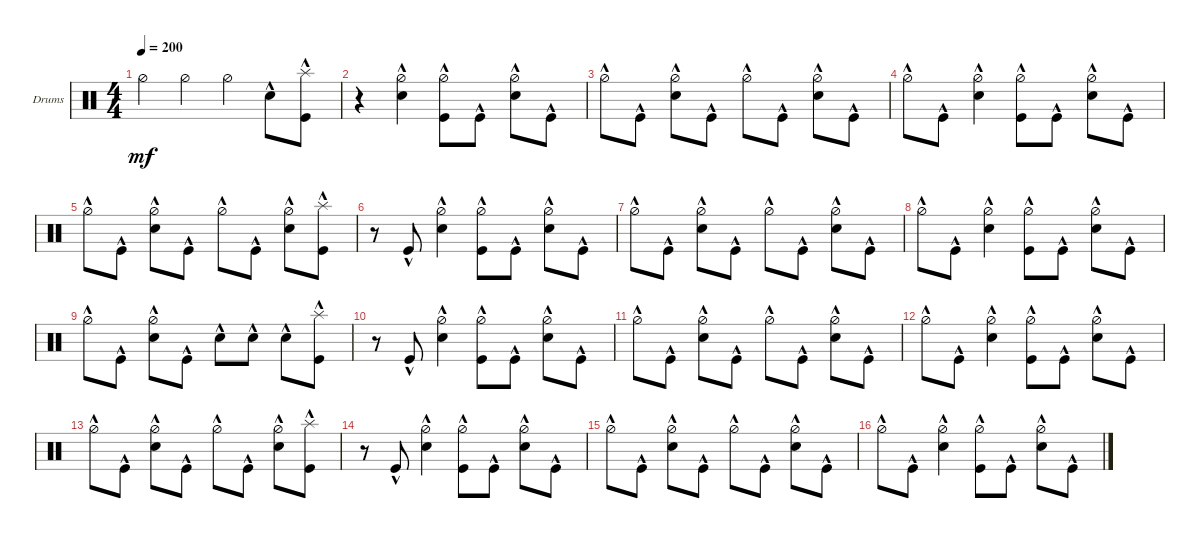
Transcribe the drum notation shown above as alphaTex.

\defaultSystemsLayout 4
\bracketExtendMode groupsimilarinstruments
\firstSystemTrackNameOrientation horizontal
\otherSystemsTrackNameOrientation horizontal
\track ("Drumkit" "Drums") {instrument percussion}
\staff {score}
\articulation defaults
\ts (4 4)
\tempo 200
\clef neutral
\scale
0.472222
\ks c "Hi-Hat (half)".4{dy mf} "Hi-Hat (half)".4 "Hi-Hat (half)".4 "Snare (hit) 2"{hac}.8
("Kick (hit)"{hac} "Splash (hit)"{hac}).8 |
\scale
0.263889 r.4 ("Snare (hit) 2"{hac} "Hi-Hat (half)"{hac}).4 ("Kick (hit)"{hac} "Hi-Hat (half)"{hac}).8 "Kick (hit)"{hac}.8 ("Snare (hit) 2"{hac} "Hi-Hat (half)"{hac}).8 "Kick (hit)"{hac}.8 |
\scale
0.263889 "Hi-Hat (half)"{hac}.8 "Kick (hit)"{hac}.8 ("Snare (hit) 2"{hac} "Hi-Hat (half)"{hac}).8 "Kick (hit)"{hac}.8 "Hi-Hat (half)"{hac}.8 "Kick (hit)"{hac}.8 ("Snare (hit) 2"{hac} "Hi-Hat (half)"{hac}).8 "Kick (hit)"{hac}.8 |
\scale
0.333333 "Hi-Hat (half)"{hac}.8 "Kick (hit)"{hac}.8 ("Snare (hit) 2"{hac} "Hi-Hat (half)"{hac}).4 ("Kick (hit)"{hac} "Hi-Hat (half)"{hac}).8 "Kick (hit)"{hac}.8 ("Snare (hit) 2"{hac} "Hi-Hat (half)"{hac}).8 "Kick (hit)"{hac}.8 |
\scale
0.333333 "Hi-Hat (half)"{hac}.8 "Kick (hit)"{hac}.8 ("Snare (hit) 2"{hac} "Hi-Hat (half)"{hac}).8 "Kick (hit)"{hac}.8 "Hi-Hat (half)"{hac}.8 "Kick (hit)"{hac}.8 ("Snare (hit) 2"{hac} "Hi-Hat (half)"{hac}).8 ("Kick (hit)"{hac} "Splash (hit)"{hac}).8 |
\scale
0.333333 r.8 "Kick (hit)"{hac}.8 ("Snare (hit) 2"{hac} "Hi-Hat (half)"{hac}).4 ("Kick (hit)"{hac} "Hi-Hat (half)"{hac}).8 "Kick (hit)"{hac}.8 ("Snare (hit) 2"{hac} "Hi-Hat (half)"{hac}).8 "Kick (hit)"{hac}.8 |
\scale
0.333333 "Hi-Hat (half)"{hac}.8 "Kick (hit)"{hac}.8 ("Snare (hit) 2"{hac} "Hi-Hat (half)"{hac}).8 "Kick (hit)"{hac}.8 "Hi-Hat (half)"{hac}.8 "Kick (hit)"{hac}.8 ("Snare (hit) 2"{hac} "Hi-Hat (half)"{hac}).8 "Kick (hit)"{hac}.8 |
\scale
0.333333 "Hi-Hat (half)"{hac}.8 "Kick (hit)"{hac}.8 ("Snare (hit) 2"{hac} "Hi-Hat (half)"{hac}).4 ("Kick (hit)"{hac} "Hi-Hat (half)"{hac}).8 "Kick (hit)"{hac}.8 ("Snare (hit) 2"{hac} "Hi-Hat (half)"{hac}).8 "Kick (hit)"{hac}.8 |
\scale
0.333333 "Hi-Hat (half)"{hac}.8 "Kick (hit)"{hac}.8 ("Snare (hit) 2"{hac} "Hi-Hat (half)"{hac}).8 "Kick (hit)"{hac}.8 "Snare (hit) 2"{hac}.8 "Snare (hit) 2"{hac}.8 "Snare (hit) 2"{hac}.8 ("Kick (hit)"{hac} "Splash (hit)"{hac}).8 |
\scale
0.333333 r.8 "Kick (hit)"{hac}.8 ("Snare (hit) 2"{hac} "Hi-Hat (half)"{hac}).4 ("Kick (hit)"{hac} "Hi-Hat (half)"{hac}).8 "Kick (hit)"{hac}.8 ("Snare (hit) 2"{hac} "Hi-Hat (half)"{hac}).8 "Kick (hit)"{hac}.8 |
\scale
0.333333 "Hi-Hat (half)"{hac}.8 "Kick (hit)"{hac}.8 ("Snare (hit) 2"{hac} "Hi-Hat (half)"{hac}).8 "Kick (hit)"{hac}.8 "Hi-Hat (half)"{hac}.8 "Kick (hit)"{hac}.8 ("Snare (hit) 2"{hac} "Hi-Hat (half)"{hac}).8 "Kick (hit)"{hac}.8 |
\scale
0.333333 "Hi-Hat (half)"{hac}.8 "Kick (hit)"{hac}.8 ("Snare (hit) 2"{hac} "Hi-Hat (half)"{hac}).4 ("Kick (hit)"{hac} "Hi-Hat (half)"{hac}).8 "Kick (hit)"{hac}.8 ("Snare (hit) 2"{hac} "Hi-Hat (half)"{hac}).8 "Kick (hit)"{hac}.8 |
\scale
0.333333 "Hi-Hat (half)"{hac}.8 "Kick (hit)"{hac}.8 ("Snare (hit) 2"{hac} "Hi-Hat (half)"{hac}).8 "Kick (hit)"{hac}.8 "Hi-Hat (half)"{hac}.8 "Kick (hit)"{hac}.8 ("Snare (hit) 2"{hac} "Hi-Hat (half)"{hac}).8 ("Kick (hit)"{hac} "Splash (hit)"{hac}).8 |
\scale
0.333333 r.8 "Kick (hit)"{hac}.8 ("Snare (hit) 2"{hac} "Hi-Hat (half)"{hac}).4 ("Kick (hit)"{hac} "Hi-Hat (half)"{hac}).8 "Kick (hit)"{hac}.8 ("Snare (hit) 2"{hac} "Hi-Hat (half)"{hac}).8 "Kick (hit)"{hac}.8 |
\scale
0.333333 "Hi-Hat (half)"{hac}.8 "Kick (hit)"{hac}.8 ("Snare (hit) 2"{hac} "Hi-Hat (half)"{hac}).8 "Kick (hit)"{hac}.8 "Hi-Hat (half)"{hac}.8 "Kick (hit)"{hac}.8 ("Snare (hit) 2"{hac} "Hi-Hat (half)"{hac}).8 "Kick (hit)"{hac}.8 |
"Hi-Hat (half)"{hac}.8 "Kick (hit)"{hac}.8 ("Snare (hit) 2"{hac} "Hi-Hat (half)"{hac}).4 ("Kick (hit)"{hac} "Hi-Hat (half)"{hac}).8 "Kick (hit)"{hac}.8 ("Snare (hit) 2"{hac} "Hi-Hat (half)"{hac}).8 "Kick (hit)"{hac}.8
